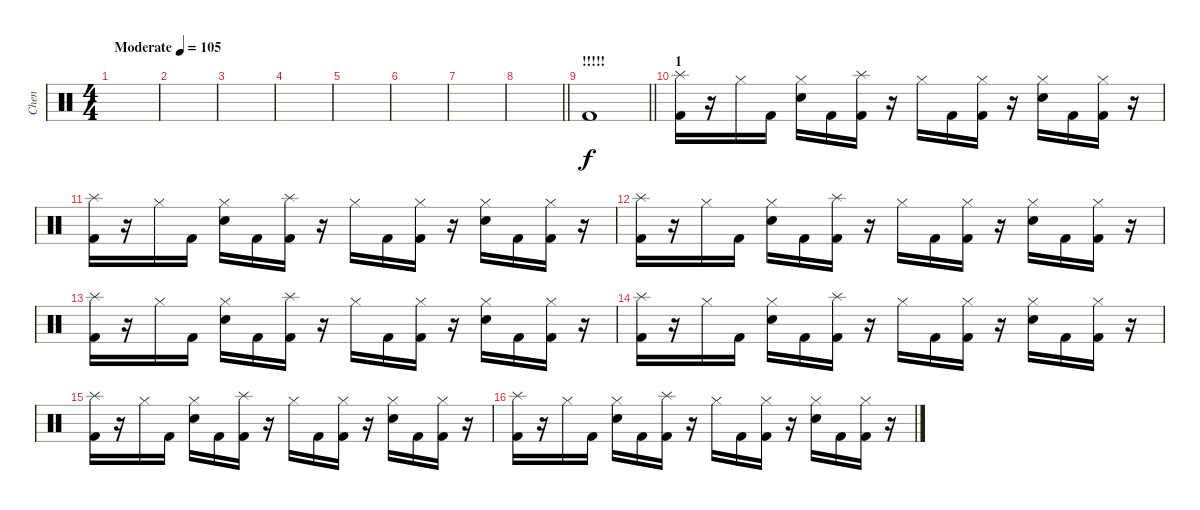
\track ("Chen" "Chen") {instrument percussion}
\staff {score}
\articulation defaults
\ts (4 4)
\tempo (105 "Moderate")
\clef neutral
\ks c
|
|
|
|
|
|
|
\barLineRight lightlight
|
\section ("" "!!!!!")
\barLineRight lightlight "Kick (hit) 2".1
|
\section ("" "1")
("Splash (hit)" "Kick (hit) 2").16 r.16 "Hi-Hat (closed)".16 "Kick (hit) 2".16 ("Hi-Hat (closed)" "Electric Snare (hit)").16 "Kick (hit) 2".16 ("Splash (hit)" "Kick (hit) 2").16 r.16 "Hi-Hat (closed)".16 "Kick (hit) 2".16 ("Hi-Hat (closed)" "Kick (hit) 2").16 r.16 ("Hi-Hat (closed)" "Electric Snare (hit)").16 "Kick (hit) 2".16 ("Hi-Hat (closed)" "Kick (hit) 2").16 r.16 |
("Splash (hit)" "Kick (hit) 2").16 r.16 "Hi-Hat (closed)".16 "Kick (hit) 2".16 ("Hi-Hat (closed)" "Electric Snare (hit)").16 "Kick (hit) 2".16 ("Splash (hit)" "Kick (hit) 2").16 r.16 "Hi-Hat (closed)".16 "Kick (hit) 2".16 ("Hi-Hat (closed)" "Kick (hit) 2").16 r.16 ("Hi-Hat (closed)" "Electric Snare (hit)").16 "Kick (hit) 2".16 ("Hi-Hat (closed)" "Kick (hit) 2").16 r.16 |
("Splash (hit)" "Kick (hit) 2").16 r.16 "Hi-Hat (closed)".16 "Kick (hit) 2".16 ("Hi-Hat (closed)" "Electric Snare (hit)").16 "Kick (hit) 2".16 ("Splash (hit)" "Kick (hit) 2").16 r.16 "Hi-Hat (closed)".16 "Kick (hit) 2".16 ("Hi-Hat (closed)" "Kick (hit) 2").16 r.16 ("Hi-Hat (closed)" "Electric Snare (hit)").16 "Kick (hit) 2".16 ("Hi-Hat (closed)" "Kick (hit) 2").16 r.16 |
("Splash (hit)" "Kick (hit) 2").16 r.16 "Hi-Hat (closed)".16 "Kick (hit) 2".16 ("Hi-Hat (closed)" "Electric Snare (hit)").16 "Kick (hit) 2".16 ("Splash (hit)" "Kick (hit) 2").16 r.16 "Hi-Hat (closed)".16 "Kick (hit) 2".16 ("Hi-Hat (closed)" "Kick (hit) 2").16 r.16 ("Hi-Hat (closed)" "Electric Snare (hit)").16 "Kick (hit) 2".16 ("Hi-Hat (closed)" "Kick (hit) 2").16 r.16 |
("Splash (hit)" "Kick (hit) 2").16 r.16 "Hi-Hat (closed)".16 "Kick (hit) 2".16 ("Hi-Hat (closed)" "Electric Snare (hit)").16 "Kick (hit) 2".16 ("Splash (hit)" "Kick (hit) 2").16 r.16 "Hi-Hat (closed)".16 "Kick (hit) 2".16 ("Hi-Hat (closed)" "Kick (hit) 2").16 r.16 ("Hi-Hat (closed)" "Electric Snare (hit)").16 "Kick (hit) 2".16 ("Hi-Hat (closed)" "Kick (hit) 2").16 r.16 |
("Splash (hit)" "Kick (hit) 2").16 r.16 "Hi-Hat (closed)".16 "Kick (hit) 2".16 ("Hi-Hat (closed)" "Electric Snare (hit)").16 "Kick (hit) 2".16 ("Splash (hit)" "Kick (hit) 2").16 r.16 "Hi-Hat (closed)".16 "Kick (hit) 2".16 ("Hi-Hat (closed)" "Kick (hit) 2").16 r.16 ("Hi-Hat (closed)" "Electric Snare (hit)").16 "Kick (hit) 2".16 ("Hi-Hat (closed)" "Kick (hit) 2").16 r.16 |
("Splash (hit)" "Kick (hit) 2").16 r.16 "Hi-Hat (closed)".16 "Kick (hit) 2".16 ("Hi-Hat (closed)" "Electric Snare (hit)").16 "Kick (hit) 2".16 ("Splash (hit)" "Kick (hit) 2").16 r.16 "Hi-Hat (closed)".16 "Kick (hit) 2".16 ("Hi-Hat (closed)" "Kick (hit) 2").16 r.16 ("Hi-Hat (closed)" "Electric Snare (hit)").16 "Kick (hit) 2".16 ("Hi-Hat (closed)" "Kick (hit) 2").16 r.16
